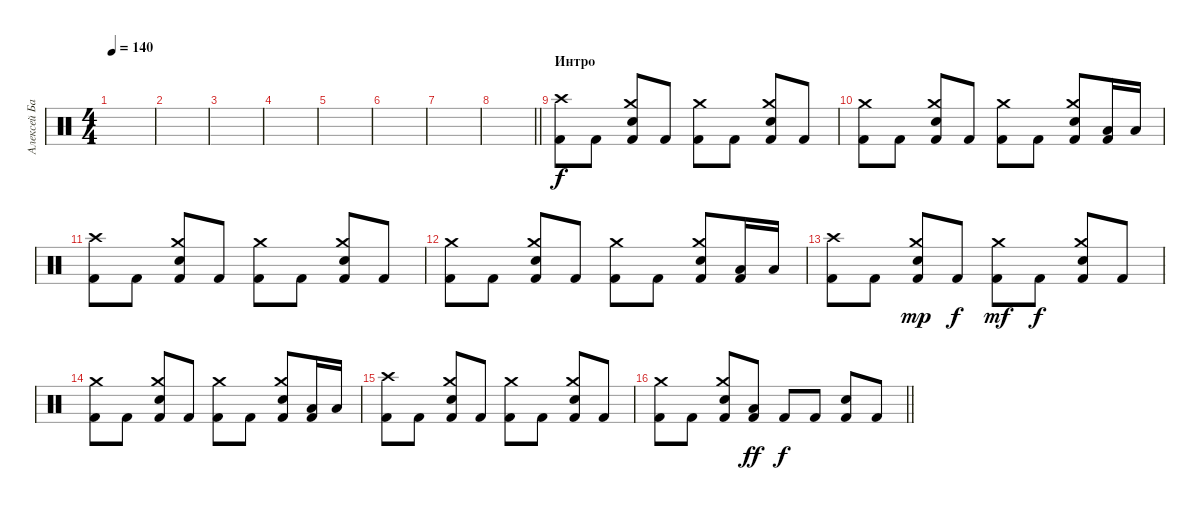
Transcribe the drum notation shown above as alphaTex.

\track ("Алексей Барзилович" "Алексей Ба") {instrument percussion}
\staff {score}
\articulation defaults
\ts (4 4)
\tempo 140
\clef neutral
\ks c
|
|
|
|
|
|
|
\barLineRight lightlight
|
\section ("" "Интро")
("Crash high (hit)" "Kick (hit) 2").8 "Kick (hit) 2".8 ("Crash medium (hit)" "Electric Snare (hit)" "Kick (hit) 2").8 "Kick (hit) 2".8 ("Crash medium (hit)" "Kick (hit) 2").8 "Kick (hit) 2".8 ("Crash medium (hit)" "Electric Snare (hit)" "Kick (hit) 2").8 "Kick (hit) 2".8 |
("Crash medium (hit)" "Kick (hit) 2").8 "Kick (hit) 2".8 ("Crash medium (hit)" "Electric Snare (hit)" "Kick (hit) 2").8 "Kick (hit) 2".8 ("Crash medium (hit)" "Kick (hit) 2").8 "Kick (hit) 2".8 ("Crash medium (hit)" "Electric Snare (hit)" "Kick (hit) 2").8 ("Low Tom (hit)" "Kick (hit) 2").16 "Low Tom (hit)".16 |
("Crash high (hit)" "Kick (hit) 2").8 "Kick (hit) 2".8 ("Crash medium (hit)" "Electric Snare (hit)" "Kick (hit) 2").8 "Kick (hit) 2".8 ("Crash medium (hit)" "Kick (hit) 2").8 "Kick (hit) 2".8 ("Crash medium (hit)" "Electric Snare (hit)" "Kick (hit) 2").8 "Kick (hit) 2".8 |
("Crash medium (hit)" "Kick (hit) 2").8 "Kick (hit) 2".8 ("Crash medium (hit)" "Electric Snare (hit)" "Kick (hit) 2").8 "Kick (hit) 2".8 ("Crash medium (hit)" "Kick (hit) 2").8 "Kick (hit) 2".8 ("Crash medium (hit)" "Electric Snare (hit)" "Kick (hit) 2").8 ("Low Tom (hit)" "Kick (hit) 2").16 "Low Tom (hit)".16 |
("Crash high (hit)" "Kick (hit) 2").8 "Kick (hit) 2".8 ("Crash medium (hit)" "Electric Snare (hit)" "Kick (hit) 2").8{dy mp} "Kick (hit) 2".8{dy f} ("Crash medium (hit)" "Kick (hit) 2").8{dy mf} "Kick (hit) 2".8{dy f} ("Crash medium (hit)" "Electric Snare (hit)" "Kick (hit) 2").8 "Kick (hit) 2".8 |
("Crash medium (hit)" "Kick (hit) 2").8 "Kick (hit) 2".8 ("Crash medium (hit)" "Electric Snare (hit)" "Kick (hit) 2").8 "Kick (hit) 2".8 ("Crash medium (hit)" "Kick (hit) 2").8 "Kick (hit) 2".8 ("Crash medium (hit)" "Electric Snare (hit)" "Kick (hit) 2").8 ("Low Tom (hit)" "Kick (hit) 2").16 "Low Tom (hit)".16 |
("Crash high (hit)" "Kick (hit) 2").8 "Kick (hit) 2".8 ("Crash medium (hit)" "Electric Snare (hit)" "Kick (hit) 2").8 "Kick (hit) 2".8 ("Crash medium (hit)" "Kick (hit) 2").8 "Kick (hit) 2".8 ("Crash medium (hit)" "Electric Snare (hit)" "Kick (hit) 2").8 "Kick (hit) 2".8 |
\barLineRight lightlight
("Crash medium (hit)" "Kick (hit) 2").8 "Kick (hit) 2".8 ("Crash medium (hit)" "Electric Snare (hit)" "Kick (hit) 2").8 ("Low Tom (hit)" "Kick (hit) 2").8{dy ff} "Kick (hit) 2".8{dy f} "Kick (hit) 2".8 ("Electric Snare (hit)" "Kick (hit) 2").8 "Kick (hit) 2".8
